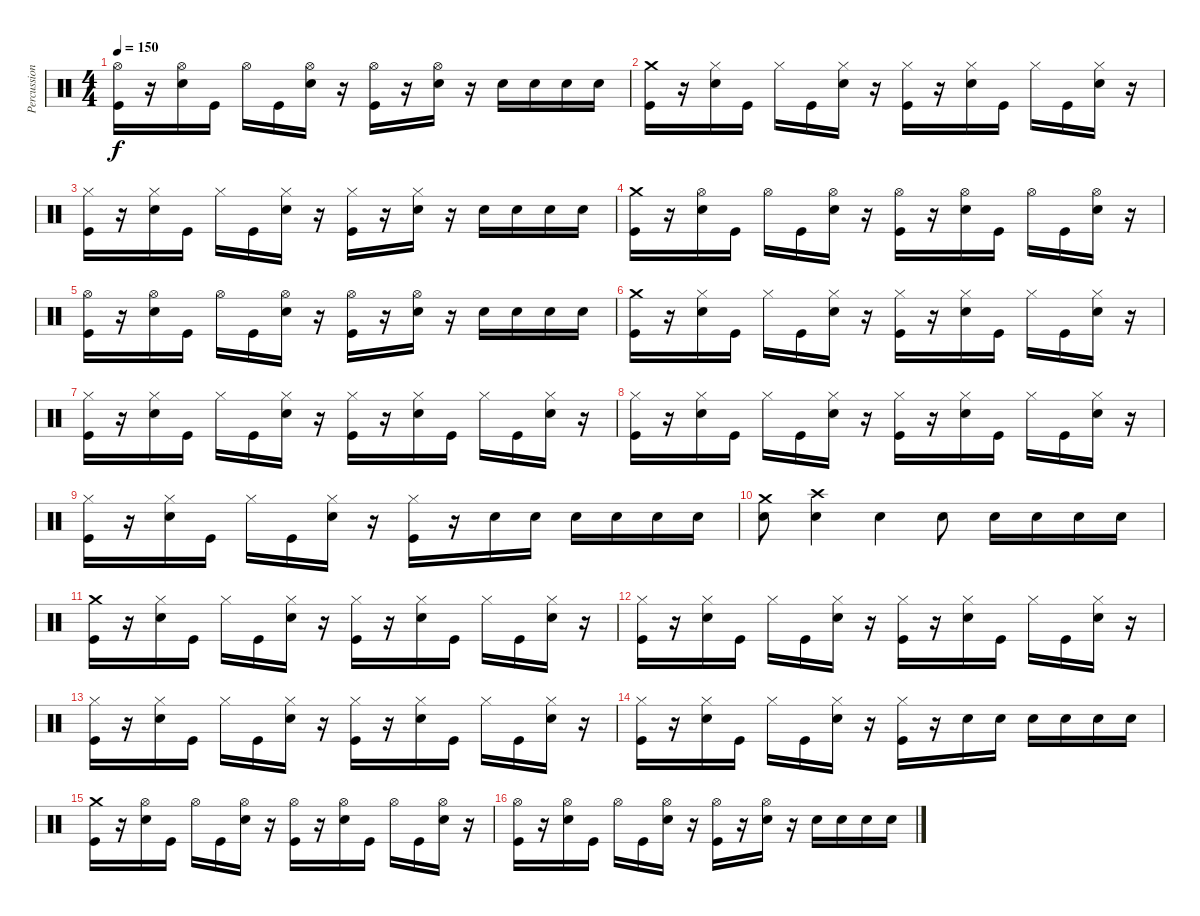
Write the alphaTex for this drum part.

\track ("Percussion" "Percussion") {instrument percussion}
\staff {score}
\articulation defaults
\ts (4 4)
\tempo 150
\clef neutral
\ks c
("Hi-Hat (open)" "Kick (hit)").16{dy f} r.16 ("Hi-Hat (open)" "Snare (hit) 2").16 "Kick (hit)".16 "Hi-Hat (open)".16 "Kick (hit)".16 ("Hi-Hat (open)" "Snare (hit) 2").16 r.16 ("Hi-Hat (open)" "Kick (hit)").16 r.16 ("Hi-Hat (open)" "Snare (hit) 2").16 r.16 "Snare (hit) 2".16 "Snare (hit) 2".16 "Snare (hit) 2".16 "Snare (hit) 2".16 |
("Crash medium (hit)" "Kick (hit)").16 r.16 ("Hi-Hat (closed)" "Snare (hit) 2").16 "Kick (hit)".16 "Hi-Hat (closed)".16 "Kick (hit)".16 ("Hi-Hat (closed)" "Snare (hit) 2").16 r.16 ("Hi-Hat (closed)" "Kick (hit)").16 r.16 ("Hi-Hat (closed)" "Snare (hit) 2").16 "Kick (hit)".16 "Hi-Hat (closed)".16 "Kick (hit)".16 ("Hi-Hat (closed)" "Snare (hit) 2").16 r.16 |
("Hi-Hat (closed)" "Kick (hit)").16 r.16 ("Hi-Hat (closed)" "Snare (hit) 2").16 "Kick (hit)".16 "Hi-Hat (closed)".16 "Kick (hit)".16 ("Hi-Hat (closed)" "Snare (hit) 2").16 r.16 ("Hi-Hat (closed)" "Kick (hit)").16 r.16 ("Hi-Hat (closed)" "Snare (hit) 2").16 r.16 "Snare (hit) 2".16 "Snare (hit) 2".16 "Snare (hit) 2".16 "Snare (hit) 2".16 |
("Crash medium (hit)" "Kick (hit)").16 r.16 ("Hi-Hat (open)" "Snare (hit) 2").16 "Kick (hit)".16 "Hi-Hat (open)".16 "Kick (hit)".16 ("Hi-Hat (open)" "Snare (hit) 2").16 r.16 ("Hi-Hat (open)" "Kick (hit)").16 r.16 ("Hi-Hat (open)" "Snare (hit) 2").16 "Kick (hit)".16 "Hi-Hat (open)".16 "Kick (hit)".16 ("Hi-Hat (open)" "Snare (hit) 2").16 r.16 |
("Hi-Hat (open)" "Kick (hit)").16 r.16 ("Hi-Hat (open)" "Snare (hit) 2").16 "Kick (hit)".16 "Hi-Hat (open)".16 "Kick (hit)".16 ("Hi-Hat (open)" "Snare (hit) 2").16 r.16 ("Hi-Hat (open)" "Kick (hit)").16 r.16 ("Hi-Hat (open)" "Snare (hit) 2").16 r.16 "Snare (hit) 2".16 "Snare (hit) 2".16 "Snare (hit) 2".16 "Snare (hit) 2".16 |
("Crash medium (hit)" "Kick (hit)").16 r.16 ("Hi-Hat (closed)" "Snare (hit) 2").16 "Kick (hit)".16 "Hi-Hat (closed)".16 "Kick (hit)".16 ("Hi-Hat (closed)" "Snare (hit) 2").16 r.16 ("Hi-Hat (closed)" "Kick (hit)").16 r.16 ("Hi-Hat (closed)" "Snare (hit) 2").16 "Kick (hit)".16 "Hi-Hat (closed)".16 "Kick (hit)".16 ("Hi-Hat (closed)" "Snare (hit) 2").16 r.16 |
("Hi-Hat (closed)" "Kick (hit)").16 r.16 ("Hi-Hat (closed)" "Snare (hit) 2").16 "Kick (hit)".16 "Hi-Hat (closed)".16 "Kick (hit)".16 ("Hi-Hat (closed)" "Snare (hit) 2").16 r.16 ("Hi-Hat (closed)" "Kick (hit)").16 r.16 ("Hi-Hat (closed)" "Snare (hit) 2").16 "Kick (hit)".16 "Hi-Hat (closed)".16 "Kick (hit)".16 ("Hi-Hat (closed)" "Snare (hit) 2").16 r.16 |
("Hi-Hat (closed)" "Kick (hit)").16 r.16 ("Hi-Hat (closed)" "Snare (hit) 2").16 "Kick (hit)".16 "Hi-Hat (closed)".16 "Kick (hit)".16 ("Hi-Hat (closed)" "Snare (hit) 2").16 r.16 ("Hi-Hat (closed)" "Kick (hit)").16 r.16 ("Hi-Hat (closed)" "Snare (hit) 2").16 "Kick (hit)".16 "Hi-Hat (closed)".16 "Kick (hit)".16 ("Hi-Hat (closed)" "Snare (hit) 2").16 r.16 |
("Hi-Hat (closed)" "Kick (hit)").16 r.16 ("Hi-Hat (closed)" "Snare (hit) 2").16 "Kick (hit)".16 "Hi-Hat (closed)".16 "Kick (hit)".16 ("Hi-Hat (closed)" "Snare (hit) 2").16 r.16 ("Hi-Hat (closed)" "Kick (hit)").16 r.16 "Snare (hit) 2".16 "Snare (hit) 2".16 "Snare (hit) 2".16 "Snare (hit) 2".16 "Snare (hit) 2".16 "Snare (hit) 2".16 |
("Crash medium (hit)" "Snare (hit) 2").8 ("Crash high (hit)" "Snare (hit) 2").4 "Snare (hit) 2".4 "Snare (hit) 2".8 "Snare (hit) 2".16 "Snare (hit) 2".16 "Snare (hit) 2".16 "Snare (hit) 2".16 |
("Crash medium (hit)" "Kick (hit)").16 r.16 ("Hi-Hat (closed)" "Snare (hit) 2").16 "Kick (hit)".16 "Hi-Hat (closed)".16 "Kick (hit)".16 ("Hi-Hat (closed)" "Snare (hit) 2").16 r.16 ("Hi-Hat (closed)" "Kick (hit)").16 r.16 ("Hi-Hat (closed)" "Snare (hit) 2").16 "Kick (hit)".16 "Hi-Hat (closed)".16 "Kick (hit)".16 ("Hi-Hat (closed)" "Snare (hit) 2").16 r.16 |
("Hi-Hat (closed)" "Kick (hit)").16 r.16 ("Hi-Hat (closed)" "Snare (hit) 2").16 "Kick (hit)".16 "Hi-Hat (closed)".16 "Kick (hit)".16 ("Hi-Hat (closed)" "Snare (hit) 2").16 r.16 ("Hi-Hat (closed)" "Kick (hit)").16 r.16 ("Hi-Hat (closed)" "Snare (hit) 2").16 "Kick (hit)".16 "Hi-Hat (closed)".16 "Kick (hit)".16 ("Hi-Hat (closed)" "Snare (hit) 2").16 r.16 |
("Hi-Hat (closed)" "Kick (hit)").16 r.16 ("Hi-Hat (closed)" "Snare (hit) 2").16 "Kick (hit)".16 "Hi-Hat (closed)".16 "Kick (hit)".16 ("Hi-Hat (closed)" "Snare (hit) 2").16 r.16 ("Hi-Hat (closed)" "Kick (hit)").16 r.16 ("Hi-Hat (closed)" "Snare (hit) 2").16 "Kick (hit)".16 "Hi-Hat (closed)".16 "Kick (hit)".16 ("Hi-Hat (closed)" "Snare (hit) 2").16 r.16 |
("Hi-Hat (closed)" "Kick (hit)").16 r.16 ("Hi-Hat (closed)" "Snare (hit) 2").16 "Kick (hit)".16 "Hi-Hat (closed)".16 "Kick (hit)".16 ("Hi-Hat (closed)" "Snare (hit) 2").16 r.16 ("Hi-Hat (closed)" "Kick (hit)").16 r.16 "Snare (hit) 2".16 "Snare (hit) 2".16 "Snare (hit) 2".16 "Snare (hit) 2".16 "Snare (hit) 2".16 "Snare (hit) 2".16 |
("Crash medium (hit)" "Kick (hit)").16 r.16 ("Hi-Hat (open)" "Snare (hit) 2").16 "Kick (hit)".16 "Hi-Hat (open)".16 "Kick (hit)".16 ("Hi-Hat (open)" "Snare (hit) 2").16 r.16 ("Hi-Hat (open)" "Kick (hit)").16 r.16 ("Hi-Hat (open)" "Snare (hit) 2").16 "Kick (hit)".16 "Hi-Hat (open)".16 "Kick (hit)".16 ("Hi-Hat (open)" "Snare (hit) 2").16 r.16 |
("Hi-Hat (open)" "Kick (hit)").16 r.16 ("Hi-Hat (open)" "Snare (hit) 2").16 "Kick (hit)".16 "Hi-Hat (open)".16 "Kick (hit)".16 ("Hi-Hat (open)" "Snare (hit) 2").16 r.16 ("Hi-Hat (open)" "Kick (hit)").16 r.16 ("Hi-Hat (open)" "Snare (hit) 2").16 r.16 "Snare (hit) 2".16 "Snare (hit) 2".16 "Snare (hit) 2".16 "Snare (hit) 2".16
